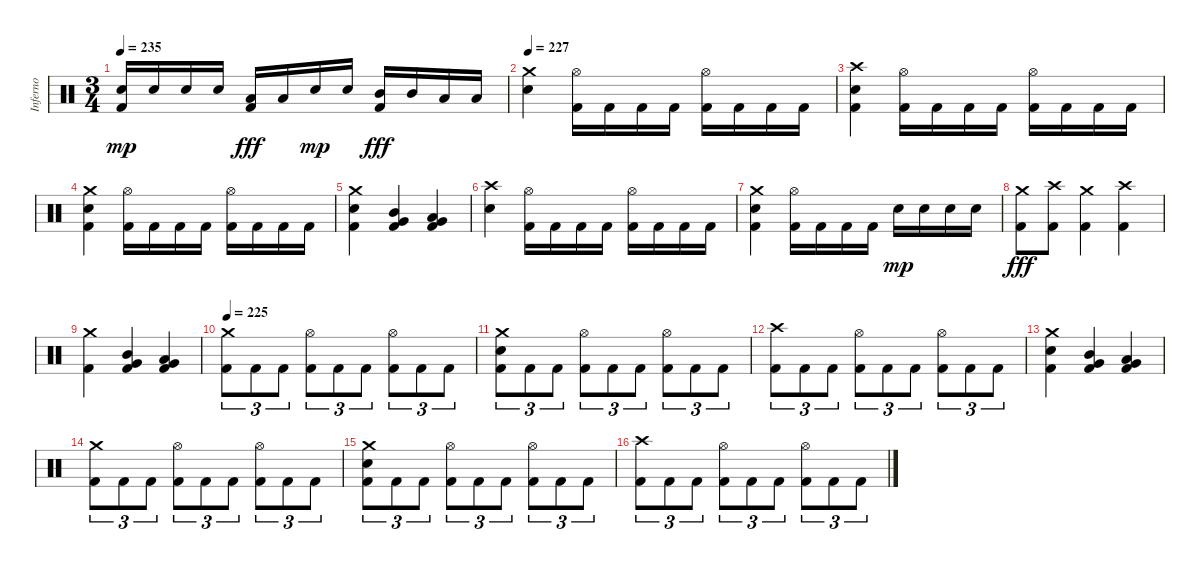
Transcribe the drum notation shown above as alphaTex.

\track ("Inferno" "Inferno") {instrument percussion}
\staff {score}
\articulation defaults
\ts (3 4)
\tempo 235
\clef neutral
\ks c
("Kick (hit) 2" "Electric Snare (hit)").16{dy mp} "Electric Snare (hit)".16 "Electric Snare (hit)".16 "Electric Snare (hit)".16 ("Kick (hit) 2" "Low Tom (hit)").16{dy fff} "Low Tom (hit)".16 "Electric Snare (hit)".16{dy mp} "Electric Snare (hit)".16 ("Kick (hit) 2" "Mid Tom (hit)").16{dy fff} "Mid Tom (hit)".16 "Low Tom (hit)".16 "Low Tom (hit)".16 |
\tempo 227
("Electric Snare (hit)" "Crash medium (hit)").4 ("Kick (hit) 2" "Hi-Hat (open)").16 "Kick (hit) 2".16 "Kick (hit) 2".16 "Kick (hit) 2".16 ("Kick (hit) 2" "Hi-Hat (open)").16 "Kick (hit) 2".16 "Kick (hit) 2".16 "Kick (hit) 2".16 |
("Kick (hit) 2" "Electric Snare (hit)" "Crash high (hit)").4 ("Kick (hit) 2" "Hi-Hat (open)").16 "Kick (hit) 2".16 "Kick (hit) 2".16 "Kick (hit) 2".16 ("Kick (hit) 2" "Hi-Hat (open)").16 "Kick (hit) 2".16 "Kick (hit) 2".16 "Kick (hit) 2".16 |
("Kick (hit) 2" "Electric Snare (hit)" "Crash medium (hit)").4 ("Kick (hit) 2" "Hi-Hat (open)").16 "Kick (hit) 2".16 "Kick (hit) 2".16 "Kick (hit) 2".16 ("Kick (hit) 2" "Hi-Hat (open)").16 "Kick (hit) 2".16 "Kick (hit) 2".16 "Kick (hit) 2".16 |
("Kick (hit) 2" "Electric Snare (hit)" "Crash medium (hit)").4 ("Kick (hit) 2" "Mid Tom (hit)" "Very Low Tom (hit)").4 ("Kick (hit) 2" "Low Tom (hit)" "Very Low Tom (hit)").4 |
("Electric Snare (hit)" "Crash high (hit)").4 ("Kick (hit) 2" "Hi-Hat (open)").16 "Kick (hit) 2".16 "Kick (hit) 2".16 "Kick (hit) 2".16 ("Kick (hit) 2" "Hi-Hat (open)").16 "Kick (hit) 2".16 "Kick (hit) 2".16 "Kick (hit) 2".16 |
("Kick (hit) 2" "Electric Snare (hit)" "Crash medium (hit)").4 ("Kick (hit) 2" "Hi-Hat (open)").16 "Kick (hit) 2".16 "Kick (hit) 2".16 "Kick (hit) 2".16 "Electric Snare (hit)".16{dy mp} "Electric Snare (hit)".16 "Electric Snare (hit)".16 "Electric Snare (hit)".16 |
("Kick (hit) 2" "Crash medium (hit)").8{dy fff} ("Kick (hit) 2" "Crash high (hit)").8 ("Kick (hit) 2" "Crash medium (hit)").4 ("Kick (hit) 2" "Crash high (hit)").4 |
("Kick (hit) 2" "Crash medium (hit)").4 ("Kick (hit) 2" "Mid Tom (hit)" "Very Low Tom (hit)").4 ("Kick (hit) 2" "Low Tom (hit)" "Very Low Tom (hit)").4 |
\tempo 225
("Kick (hit) 2" "Crash medium (hit)").8{tu (3 2)} "Kick (hit) 2".8{tu (3 2)} "Kick (hit) 2".8{tu (3 2)} ("Kick (hit) 2" "Hi-Hat (open)").8{tu (3 2)} "Kick (hit) 2".8{tu (3 2)} "Kick (hit) 2".8{tu (3 2)} ("Kick (hit) 2" "Hi-Hat (open)").8{tu (3 2)} "Kick (hit) 2".8{tu (3 2)} "Kick (hit) 2".8{tu (3 2)} |
("Kick (hit) 2" "Electric Snare (hit)" "Crash medium (hit)").8{tu (3 2)} "Kick (hit) 2".8{tu (3 2)} "Kick (hit) 2".8{tu (3 2)} ("Kick (hit) 2" "Hi-Hat (open)").8{tu (3 2)} "Kick (hit) 2".8{tu (3 2)} "Kick (hit) 2".8{tu (3 2)} ("Kick (hit) 2" "Hi-Hat (open)").8{tu (3 2)} "Kick (hit) 2".8{tu (3 2)} "Kick (hit) 2".8{tu (3 2)} |
("Kick (hit) 2" "Crash high (hit)").8{tu (3 2)} "Kick (hit) 2".8{tu (3 2)} "Kick (hit) 2".8{tu (3 2)} ("Kick (hit) 2" "Hi-Hat (open)").8{tu (3 2)} "Kick (hit) 2".8{tu (3 2)} "Kick (hit) 2".8{tu (3 2)} ("Kick (hit) 2" "Hi-Hat (open)").8{tu (3 2)} "Kick (hit) 2".8{tu (3 2)} "Kick (hit) 2".8{tu (3 2)} |
("Kick (hit) 2" "Electric Snare (hit)" "Crash medium (hit)").4 ("Kick (hit) 2" "Mid Tom (hit)" "Very Low Tom (hit)").4 ("Kick (hit) 2" "Low Tom (hit)" "Very Low Tom (hit)").4 |
("Kick (hit) 2" "Crash medium (hit)").8{tu (3 2)} "Kick (hit) 2".8{tu (3 2)} "Kick (hit) 2".8{tu (3 2)} ("Kick (hit) 2" "Hi-Hat (open)").8{tu (3 2)} "Kick (hit) 2".8{tu (3 2)} "Kick (hit) 2".8{tu (3 2)} ("Kick (hit) 2" "Hi-Hat (open)").8{tu (3 2)} "Kick (hit) 2".8{tu (3 2)} "Kick (hit) 2".8{tu (3 2)} |
("Kick (hit) 2" "Electric Snare (hit)" "Crash medium (hit)").8{tu (3 2)} "Kick (hit) 2".8{tu (3 2)} "Kick (hit) 2".8{tu (3 2)} ("Kick (hit) 2" "Hi-Hat (open)").8{tu (3 2)} "Kick (hit) 2".8{tu (3 2)} "Kick (hit) 2".8{tu (3 2)} ("Kick (hit) 2" "Hi-Hat (open)").8{tu (3 2)} "Kick (hit) 2".8{tu (3 2)} "Kick (hit) 2".8{tu (3 2)} |
("Kick (hit) 2" "Crash high (hit)").8{tu (3 2)} "Kick (hit) 2".8{tu (3 2)} "Kick (hit) 2".8{tu (3 2)} ("Kick (hit) 2" "Hi-Hat (open)").8{tu (3 2)} "Kick (hit) 2".8{tu (3 2)} "Kick (hit) 2".8{tu (3 2)} ("Kick (hit) 2" "Hi-Hat (open)").8{tu (3 2)} "Kick (hit) 2".8{tu (3 2)} "Kick (hit) 2".8{tu (3 2)}
